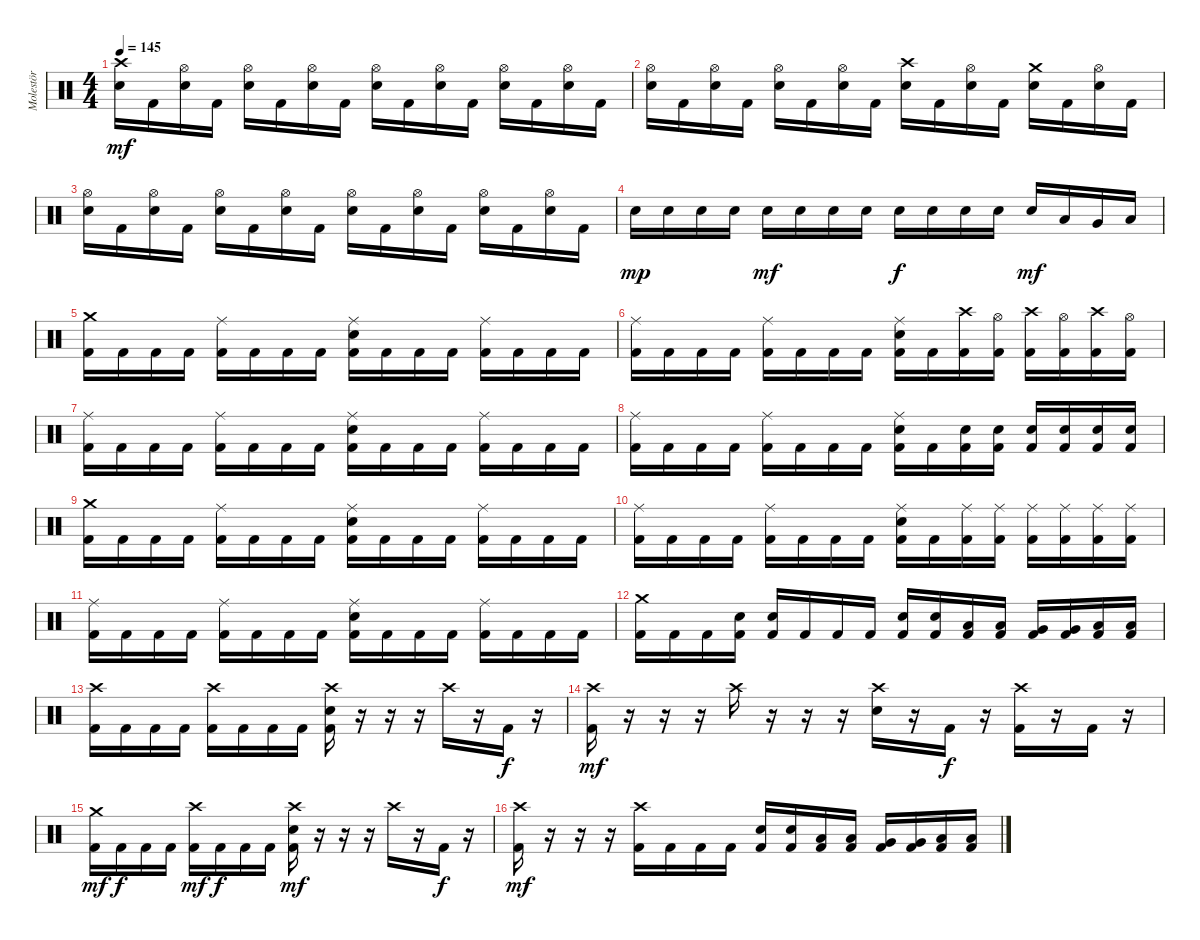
\track ("Molestör" "Molestör") {instrument percussion}
\staff {score}
\articulation defaults
\ts (4 4)
\tempo 145
\clef neutral
\ks c
("Crash high (hit)" "Electric Snare (hit)").16{dy mf} "Kick (hit) 2".16 ("Hi-Hat (open)" "Electric Snare (hit)").16 "Kick (hit) 2".16 ("Hi-Hat (open)" "Electric Snare (hit)").16 "Kick (hit) 2".16 ("Hi-Hat (open)" "Electric Snare (hit)").16 "Kick (hit) 2".16 ("Hi-Hat (open)" "Electric Snare (hit)").16 "Kick (hit) 2".16 ("Hi-Hat (open)" "Electric Snare (hit)").16 "Kick (hit) 2".16 ("Hi-Hat (open)" "Electric Snare (hit)").16 "Kick (hit) 2".16 ("Hi-Hat (open)" "Electric Snare (hit)").16 "Kick (hit) 2".16 |
("Hi-Hat (open)" "Electric Snare (hit)").16 "Kick (hit) 2".16 ("Hi-Hat (open)" "Electric Snare (hit)").16 "Kick (hit) 2".16 ("Hi-Hat (open)" "Electric Snare (hit)").16 "Kick (hit) 2".16 ("Hi-Hat (open)" "Electric Snare (hit)").16 "Kick (hit) 2".16 ("Crash high (hit)" "Electric Snare (hit)").16 "Kick (hit) 2".16 ("Hi-Hat (open)" "Electric Snare (hit)").16 "Kick (hit) 2".16 ("Crash medium (hit)" "Electric Snare (hit)").16 "Kick (hit) 2".16 ("Hi-Hat (open)" "Electric Snare (hit)").16 "Kick (hit) 2".16 |
("Hi-Hat (open)" "Electric Snare (hit)").16 "Kick (hit) 2".16 ("Hi-Hat (open)" "Electric Snare (hit)").16 "Kick (hit) 2".16 ("Hi-Hat (open)" "Electric Snare (hit)").16 "Kick (hit) 2".16 ("Hi-Hat (open)" "Electric Snare (hit)").16 "Kick (hit) 2".16 ("Hi-Hat (open)" "Electric Snare (hit)").16 "Kick (hit) 2".16 ("Hi-Hat (open)" "Electric Snare (hit)").16 "Kick (hit) 2".16 ("Hi-Hat (open)" "Electric Snare (hit)").16 "Kick (hit) 2".16 ("Hi-Hat (open)" "Electric Snare (hit)").16 "Kick (hit) 2".16 |
"Electric Snare (hit)".16{dy mp} "Electric Snare (hit)".16 "Electric Snare (hit)".16 "Electric Snare (hit)".16 "Electric Snare (hit)".16{dy mf} "Electric Snare (hit)".16 "Electric Snare (hit)".16 "Electric Snare (hit)".16 "Electric Snare (hit)".16{dy f} "Electric Snare (hit)".16 "Electric Snare (hit)".16 "Electric Snare (hit)".16 "Electric Snare (hit)".16{dy mf} "Low Tom (hit)".16 "Very Low Tom (hit)".16 "Low Floor Tom (hit)".16 |
("Crash medium (hit)" "Kick (hit) 2").16 "Kick (hit) 2".16 "Kick (hit) 2".16 "Kick (hit) 2".16 ("Ride (middle)" "Kick (hit) 2").16 "Kick (hit) 2".16 "Kick (hit) 2".16 "Kick (hit) 2".16 ("Ride (middle)" "Electric Snare (hit)" "Kick (hit) 2").16 "Kick (hit) 2".16 "Kick (hit) 2".16 "Kick (hit) 2".16 ("Ride (middle)" "Kick (hit) 2").16 "Kick (hit) 2".16 "Kick (hit) 2".16 "Kick (hit) 2".16 |
("Ride (middle)" "Kick (hit) 2").16 "Kick (hit) 2".16 "Kick (hit) 2".16 "Kick (hit) 2".16 ("Ride (middle)" "Kick (hit) 2").16 "Kick (hit) 2".16 "Kick (hit) 2".16 "Kick (hit) 2".16 ("Ride (middle)" "Electric Snare (hit)" "Kick (hit) 2").16 "Kick (hit) 2".16 ("Crash high (hit)" "Kick (hit) 2").16 ("Hi-Hat (open)" "Kick (hit) 2").16 ("Crash high (hit)" "Kick (hit) 2").16 ("Hi-Hat (open)" "Kick (hit) 2").16 ("Crash high (hit)" "Kick (hit) 2").16 ("Hi-Hat (open)" "Kick (hit) 2").16 |
("Ride (middle)" "Kick (hit) 2").16 "Kick (hit) 2".16 "Kick (hit) 2".16 "Kick (hit) 2".16 ("Ride (middle)" "Kick (hit) 2").16 "Kick (hit) 2".16 "Kick (hit) 2".16 "Kick (hit) 2".16 ("Ride (middle)" "Electric Snare (hit)" "Kick (hit) 2").16 "Kick (hit) 2".16 "Kick (hit) 2".16 "Kick (hit) 2".16 ("Ride (middle)" "Kick (hit) 2").16 "Kick (hit) 2".16 "Kick (hit) 2".16 "Kick (hit) 2".16 |
("Ride (middle)" "Kick (hit) 2").16 "Kick (hit) 2".16 "Kick (hit) 2".16 "Kick (hit) 2".16 ("Ride (middle)" "Kick (hit) 2").16 "Kick (hit) 2".16 "Kick (hit) 2".16 "Kick (hit) 2".16 ("Ride (middle)" "Electric Snare (hit)" "Kick (hit) 2").16 "Kick (hit) 2".16 ("Electric Snare (hit)" "Kick (hit) 2").16 ("Electric Snare (hit)" "Kick (hit) 2").16 ("Electric Snare (hit)" "Kick (hit) 2").16 ("Electric Snare (hit)" "Kick (hit) 2").16 ("Electric Snare (hit)" "Kick (hit) 2").16 ("Electric Snare (hit)" "Kick (hit) 2").16 |
("Crash medium (hit)" "Kick (hit) 2").16 "Kick (hit) 2".16 "Kick (hit) 2".16 "Kick (hit) 2".16 ("Ride (middle)" "Kick (hit) 2").16 "Kick (hit) 2".16 "Kick (hit) 2".16 "Kick (hit) 2".16 ("Ride (middle)" "Electric Snare (hit)" "Kick (hit) 2").16 "Kick (hit) 2".16 "Kick (hit) 2".16 "Kick (hit) 2".16 ("Ride (middle)" "Kick (hit) 2").16 "Kick (hit) 2".16 "Kick (hit) 2".16 "Kick (hit) 2".16 |
("Ride (middle)" "Kick (hit) 2").16 "Kick (hit) 2".16 "Kick (hit) 2".16 "Kick (hit) 2".16 ("Ride (middle)" "Kick (hit) 2").16 "Kick (hit) 2".16 "Kick (hit) 2".16 "Kick (hit) 2".16 ("Ride (middle)" "Electric Snare (hit)" "Kick (hit) 2").16 "Kick (hit) 2".16 ("Ride (middle)" "Kick (hit) 2").16 ("Ride (middle)" "Kick (hit) 2").16 ("Ride (middle)" "Kick (hit) 2").16 ("Ride (middle)" "Kick (hit) 2").16 ("Ride (middle)" "Kick (hit) 2").16 ("Ride (middle)" "Kick (hit) 2").16 |
("Ride (middle)" "Kick (hit) 2").16 "Kick (hit) 2".16 "Kick (hit) 2".16 "Kick (hit) 2".16 ("Ride (middle)" "Kick (hit) 2").16 "Kick (hit) 2".16 "Kick (hit) 2".16 "Kick (hit) 2".16 ("Ride (middle)" "Electric Snare (hit)" "Kick (hit) 2").16 "Kick (hit) 2".16 "Kick (hit) 2".16 "Kick (hit) 2".16 ("Ride (middle)" "Kick (hit) 2").16 "Kick (hit) 2".16 "Kick (hit) 2".16 "Kick (hit) 2".16 |
("Crash medium (hit)" "Kick (hit) 2").16 "Kick (hit) 2".16 "Kick (hit) 2".16 ("Electric Snare (hit)" "Kick (hit) 2").16 ("Electric Snare (hit)" "Kick (hit) 2").16 "Kick (hit) 2".16 "Kick (hit) 2".16 "Kick (hit) 2".16 ("Electric Snare (hit)" "Kick (hit) 2").16 ("Electric Snare (hit)" "Kick (hit) 2").16 ("Low Tom (hit)" "Kick (hit) 2").16 ("Low Tom (hit)" "Kick (hit) 2").16 ("Very Low Tom (hit)" "Kick (hit) 2").16 ("Very Low Tom (hit)" "Kick (hit) 2").16 ("Low Floor Tom (hit)" "Kick (hit) 2").16 ("Low Floor Tom (hit)" "Kick (hit) 2").16 |
("Crash high (hit)" "Kick (hit) 2").16 "Kick (hit) 2".16 "Kick (hit) 2".16 "Kick (hit) 2".16 ("Crash high (hit)" "Kick (hit) 2").16 "Kick (hit) 2".16 "Kick (hit) 2".16 "Kick (hit) 2".16 ("Crash high (hit)" "Electric Snare (hit)" "Kick (hit) 2").16 r.16 r.16 r.16 "Crash high (hit)".16 r.16 "Kick (hit) 2".16{dy f} r.16 |
("Crash high (hit)" "Kick (hit) 2").16{dy mf} r.16 r.16 r.16 "Crash high (hit)".16 r.16 r.16 r.16 ("Crash high (hit)" "Electric Snare (hit)").16 r.16 "Kick (hit) 2".16{dy f} r.16 ("Crash high (hit)" "Kick (hit) 2").16 r.16 "Kick (hit) 2".16 r.16 |
("Crash medium (hit)" "Kick (hit) 2").16{dy mf} "Kick (hit) 2".16{dy f} "Kick (hit) 2".16 "Kick (hit) 2".16 ("Crash high (hit)" "Kick (hit) 2").16{dy mf} "Kick (hit) 2".16{dy f} "Kick (hit) 2".16 "Kick (hit) 2".16 ("Crash high (hit)" "Electric Snare (hit)" "Kick (hit) 2").16{dy mf} r.16 r.16 r.16 "Crash high (hit)".16 r.16 "Kick (hit) 2".16{dy f} r.16 |
("Crash high (hit)" "Kick (hit) 2").16{dy mf} r.16 r.16 r.16 ("Crash high (hit)" "Kick (hit) 2").16 "Kick (hit) 2".16 "Kick (hit) 2".16 "Kick (hit) 2".16 ("Electric Snare (hit)" "Kick (hit) 2").16 ("Electric Snare (hit)" "Kick (hit) 2").16 ("Low Tom (hit)" "Kick (hit) 2").16 ("Low Tom (hit)" "Kick (hit) 2").16 ("Very Low Tom (hit)" "Kick (hit) 2").16 ("Very Low Tom (hit)" "Kick (hit) 2").16 ("Low Floor Tom (hit)" "Kick (hit) 2").16 ("Low Floor Tom (hit)" "Kick (hit) 2").16
